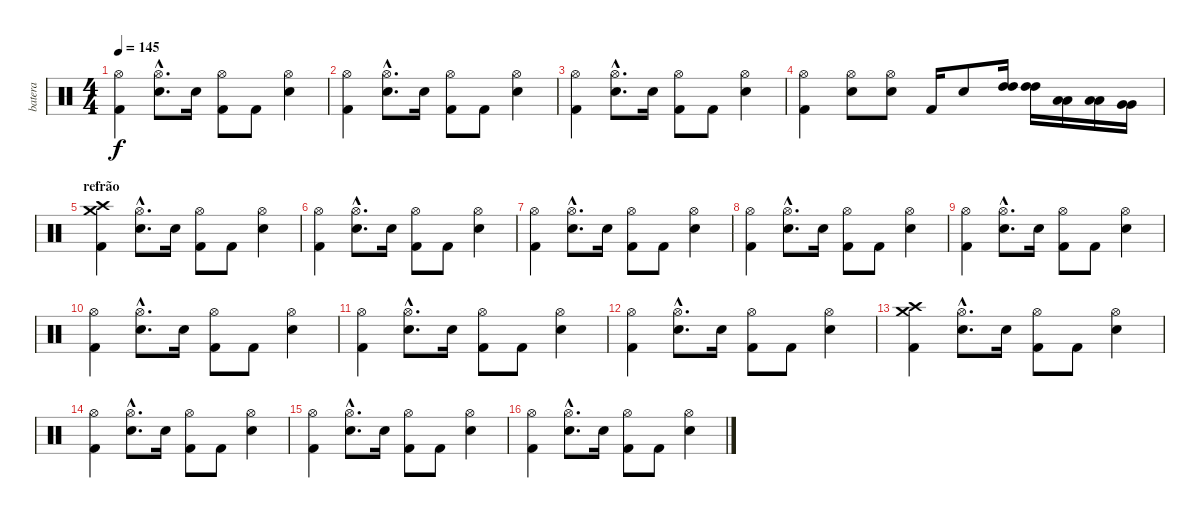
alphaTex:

\track ("batera" "batera") {instrument percussion}
\staff {score}
\articulation defaults
\ts (4 4)
\tempo 145
\clef neutral
\ks c
("Kick (hit) 2" "Hi-Hat (open)").4{dy f} ("Snare (hit) 2"{hac} "Hi-Hat (open)"{hac}).8{d} "Snare (hit) 2".16 ("Kick (hit) 2" "Hi-Hat (open)").8 "Kick (hit) 2".8 ("Snare (hit) 2" "Hi-Hat (open)").4 |
("Kick (hit) 2" "Hi-Hat (open)").4 ("Snare (hit) 2"{hac} "Hi-Hat (open)"{hac}).8{d} "Snare (hit) 2".16 ("Kick (hit) 2" "Hi-Hat (open)").8 "Kick (hit) 2".8 ("Snare (hit) 2" "Hi-Hat (open)").4 |
("Kick (hit) 2" "Hi-Hat (open)").4 ("Snare (hit) 2"{hac} "Hi-Hat (open)"{hac}).8{d} "Snare (hit) 2".16 ("Kick (hit) 2" "Hi-Hat (open)").8 "Kick (hit) 2".8 ("Snare (hit) 2" "Hi-Hat (open)").4 |
("Kick (hit) 2" "Hi-Hat (open)").4 ("Snare (hit) 2" "Hi-Hat (open)").8 ("Snare (hit) 2" "Hi-Hat (open)").8 "Kick (hit) 2".16 "Snare (hit) 2".8 ("High Tom (hit)" "High Tom (hit)").16 ("High Tom (hit)" "High Tom (hit)").16 ("Low Tom (hit)" "Low Tom (hit)").16 ("Low Tom (hit)" "Low Tom (hit)").16 ("Very Low Tom (hit)" "Very Low Tom (hit)").16 |
\section ("" "refrão")
("Crash high (hit)" "Crash medium (hit)" "Kick (hit) 2").4 ("Snare (hit) 2"{hac} "Hi-Hat (open)"{hac}).8{d} "Snare (hit) 2".16 ("Kick (hit) 2" "Hi-Hat (open)").8 "Kick (hit) 2".8 ("Snare (hit) 2" "Hi-Hat (open)").4 |
("Kick (hit) 2" "Hi-Hat (open)").4 ("Snare (hit) 2"{hac} "Hi-Hat (open)"{hac}).8{d} "Snare (hit) 2".16 ("Kick (hit) 2" "Hi-Hat (open)").8 "Kick (hit) 2".8 ("Snare (hit) 2" "Hi-Hat (open)").4 |
("Kick (hit) 2" "Hi-Hat (open)").4 ("Snare (hit) 2"{hac} "Hi-Hat (open)"{hac}).8{d} "Snare (hit) 2".16 ("Kick (hit) 2" "Hi-Hat (open)").8 "Kick (hit) 2".8 ("Snare (hit) 2" "Hi-Hat (open)").4 |
("Kick (hit) 2" "Hi-Hat (open)").4 ("Snare (hit) 2"{hac} "Hi-Hat (open)"{hac}).8{d} "Snare (hit) 2".16 ("Kick (hit) 2" "Hi-Hat (open)").8 "Kick (hit) 2".8 ("Snare (hit) 2" "Hi-Hat (open)").4 |
("Kick (hit) 2" "Hi-Hat (open)").4 ("Snare (hit) 2"{hac} "Hi-Hat (open)"{hac}).8{d} "Snare (hit) 2".16 ("Kick (hit) 2" "Hi-Hat (open)").8 "Kick (hit) 2".8 ("Snare (hit) 2" "Hi-Hat (open)").4 |
("Kick (hit) 2" "Hi-Hat (open)").4 ("Snare (hit) 2"{hac} "Hi-Hat (open)"{hac}).8{d} "Snare (hit) 2".16 ("Kick (hit) 2" "Hi-Hat (open)").8 "Kick (hit) 2".8 ("Snare (hit) 2" "Hi-Hat (open)").4 |
("Kick (hit) 2" "Hi-Hat (open)").4 ("Snare (hit) 2"{hac} "Hi-Hat (open)"{hac}).8{d} "Snare (hit) 2".16 ("Kick (hit) 2" "Hi-Hat (open)").8 "Kick (hit) 2".8 ("Snare (hit) 2" "Hi-Hat (open)").4 |
("Kick (hit) 2" "Hi-Hat (open)").4 ("Snare (hit) 2"{hac} "Hi-Hat (open)"{hac}).8{d} "Snare (hit) 2".16 ("Kick (hit) 2" "Hi-Hat (open)").8 "Kick (hit) 2".8 ("Snare (hit) 2" "Hi-Hat (open)").4 |
("Crash high (hit)" "Crash medium (hit)" "Kick (hit) 2").4 ("Snare (hit) 2"{hac} "Hi-Hat (open)"{hac}).8{d} "Snare (hit) 2".16 ("Kick (hit) 2" "Hi-Hat (open)").8 "Kick (hit) 2".8 ("Snare (hit) 2" "Hi-Hat (open)").4 |
("Kick (hit) 2" "Hi-Hat (open)").4 ("Snare (hit) 2"{hac} "Hi-Hat (open)"{hac}).8{d} "Snare (hit) 2".16 ("Kick (hit) 2" "Hi-Hat (open)").8 "Kick (hit) 2".8 ("Snare (hit) 2" "Hi-Hat (open)").4 |
("Kick (hit) 2" "Hi-Hat (open)").4 ("Snare (hit) 2"{hac} "Hi-Hat (open)"{hac}).8{d} "Snare (hit) 2".16 ("Kick (hit) 2" "Hi-Hat (open)").8 "Kick (hit) 2".8 ("Snare (hit) 2" "Hi-Hat (open)").4 |
("Kick (hit) 2" "Hi-Hat (open)").4 ("Snare (hit) 2"{hac} "Hi-Hat (open)"{hac}).8{d} "Snare (hit) 2".16 ("Kick (hit) 2" "Hi-Hat (open)").8 "Kick (hit) 2".8 ("Snare (hit) 2" "Hi-Hat (open)").4
